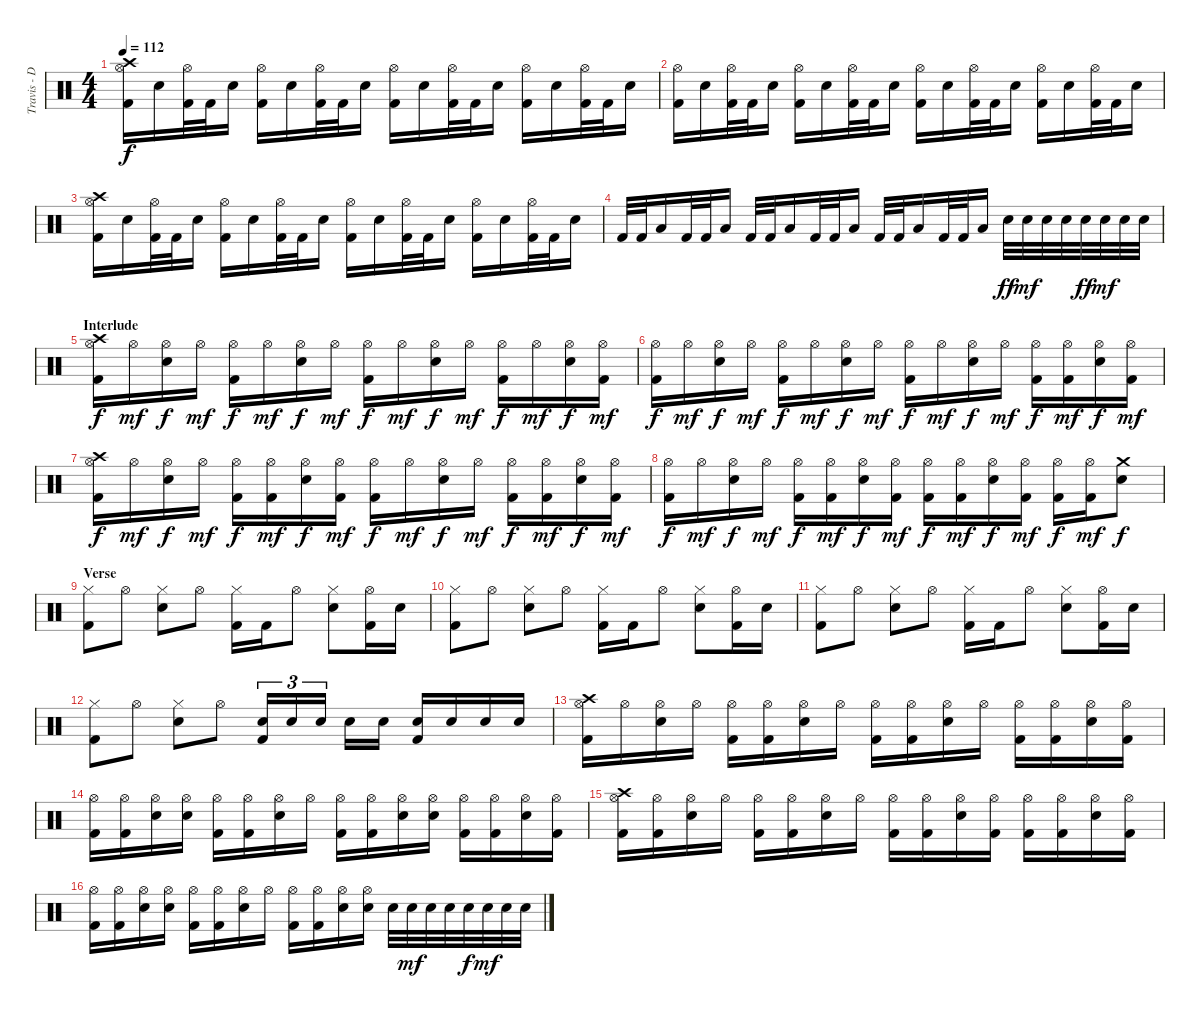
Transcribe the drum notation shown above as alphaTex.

\track ("Travis - Drums" "Travis - D") {instrument percussion}
\staff {score}
\articulation defaults
\ts (4 4)
\tempo 112
\clef neutral
\ks c
("Crash high (hit)" "Hi-Hat (open)" "Kick (hit) 2").16{dy f} "Electric Snare (hit)".16 ("Hi-Hat (open)" "Kick (hit) 2").32 "Kick (hit) 2".32 "Electric Snare (hit)".16 ("Hi-Hat (open)" "Kick (hit) 2").16 "Electric Snare (hit)".16 ("Hi-Hat (open)" "Kick (hit) 2").32 "Kick (hit) 2".32 "Electric Snare (hit)".16 ("Hi-Hat (open)" "Kick (hit) 2").16 "Electric Snare (hit)".16 ("Hi-Hat (open)" "Kick (hit) 2").32 "Kick (hit) 2".32 "Electric Snare (hit)".16 ("Hi-Hat (open)" "Kick (hit) 2").16 "Electric Snare (hit)".16 ("Hi-Hat (open)" "Kick (hit) 2").32 "Kick (hit) 2".32 "Electric Snare (hit)".16 |
("Hi-Hat (open)" "Kick (hit) 2").16 "Electric Snare (hit)".16 ("Hi-Hat (open)" "Kick (hit) 2").32 "Kick (hit) 2".32 "Electric Snare (hit)".16 ("Hi-Hat (open)" "Kick (hit) 2").16 "Electric Snare (hit)".16 ("Hi-Hat (open)" "Kick (hit) 2").32 "Kick (hit) 2".32 "Electric Snare (hit)".16 ("Hi-Hat (open)" "Kick (hit) 2").16 "Electric Snare (hit)".16 ("Hi-Hat (open)" "Kick (hit) 2").32 "Kick (hit) 2".32 "Electric Snare (hit)".16 ("Hi-Hat (open)" "Kick (hit) 2").16 "Electric Snare (hit)".16 ("Hi-Hat (open)" "Kick (hit) 2").32 "Kick (hit) 2".32 "Electric Snare (hit)".16 |
("Crash high (hit)" "Hi-Hat (open)" "Kick (hit) 2").16 "Electric Snare (hit)".16 ("Hi-Hat (open)" "Kick (hit) 2").32 "Kick (hit) 2".32 "Electric Snare (hit)".16 ("Hi-Hat (open)" "Kick (hit) 2").16 "Electric Snare (hit)".16 ("Hi-Hat (open)" "Kick (hit) 2").32 "Kick (hit) 2".32 "Electric Snare (hit)".16 ("Hi-Hat (open)" "Kick (hit) 2").16 "Electric Snare (hit)".16 ("Hi-Hat (open)" "Kick (hit) 2").32 "Kick (hit) 2".32 "Electric Snare (hit)".16 ("Hi-Hat (open)" "Kick (hit) 2").16 "Electric Snare (hit)".16 ("Hi-Hat (open)" "Kick (hit) 2").32 "Kick (hit) 2".32 "Electric Snare (hit)".16 |
"Kick (hit) 2".32 "Kick (hit) 2".32 "Low Tom (hit)".16 "Kick (hit) 2".32 "Kick (hit) 2".32 "Low Tom (hit)".16 "Kick (hit) 2".32 "Kick (hit) 2".32 "Low Tom (hit)".16 "Kick (hit) 2".32 "Kick (hit) 2".32 "Low Tom (hit)".16 "Kick (hit) 2".32 "Kick (hit) 2".32 "Low Tom (hit)".16 "Kick (hit) 2".32 "Kick (hit) 2".32 "Low Tom (hit)".16 "Electric Snare (hit)".32{dy ff} "Electric Snare (hit)".32{dy mf} "Electric Snare (hit)".32 "Electric Snare (hit)".32 "Electric Snare (hit)".32{dy ff} "Electric Snare (hit)".32{dy mf} "Electric Snare (hit)".32 "Electric Snare (hit)".32 |
\section ("" "Interlude")
("Crash high (hit)" "Hi-Hat (open)" "Kick (hit) 2").16{dy f} "Hi-Hat (open)".16{dy mf} ("Hi-Hat (open)" "Electric Snare (hit)").16{dy f} "Hi-Hat (open)".16{dy mf} ("Hi-Hat (open)" "Kick (hit) 2").16{dy f} "Hi-Hat (open)".16{dy mf} ("Hi-Hat (open)" "Electric Snare (hit)").16{dy f} "Hi-Hat (open)".16{dy mf} ("Hi-Hat (open)" "Kick (hit) 2").16{dy f} "Hi-Hat (open)".16{dy mf} ("Hi-Hat (open)" "Electric Snare (hit)").16{dy f} "Hi-Hat (open)".16{dy mf} ("Hi-Hat (open)" "Kick (hit) 2").16{dy f} "Hi-Hat (open)".16{dy mf} ("Hi-Hat (open)" "Electric Snare (hit)").16{dy f} ("Hi-Hat (open)" "Kick (hit) 2").16{dy mf} |
("Hi-Hat (open)" "Kick (hit) 2").16{dy f} "Hi-Hat (open)".16{dy mf} ("Hi-Hat (open)" "Electric Snare (hit)").16{dy f} "Hi-Hat (open)".16{dy mf} ("Hi-Hat (open)" "Kick (hit) 2").16{dy f} "Hi-Hat (open)".16{dy mf} ("Hi-Hat (open)" "Electric Snare (hit)").16{dy f} "Hi-Hat (open)".16{dy mf} ("Hi-Hat (open)" "Kick (hit) 2").16{dy f} "Hi-Hat (open)".16{dy mf} ("Hi-Hat (open)" "Electric Snare (hit)").16{dy f} "Hi-Hat (open)".16{dy mf} ("Hi-Hat (open)" "Kick (hit) 2").16{dy f} ("Hi-Hat (open)" "Kick (hit) 2").16{dy mf} ("Hi-Hat (open)" "Electric Snare (hit)").16{dy f} ("Hi-Hat (open)" "Kick (hit) 2").16{dy mf} |
("Crash high (hit)" "Hi-Hat (open)" "Kick (hit) 2").16{dy f} "Hi-Hat (open)".16{dy mf} ("Hi-Hat (open)" "Electric Snare (hit)").16{dy f} "Hi-Hat (open)".16{dy mf} ("Hi-Hat (open)" "Kick (hit) 2").16{dy f} ("Hi-Hat (open)" "Kick (hit) 2").16{dy mf} ("Hi-Hat (open)" "Electric Snare (hit)").16{dy f} ("Hi-Hat (open)" "Kick (hit) 2").16{dy mf} ("Hi-Hat (open)" "Kick (hit) 2").16{dy f} "Hi-Hat (open)".16{dy mf} ("Hi-Hat (open)" "Electric Snare (hit)").16{dy f} "Hi-Hat (open)".16{dy mf} ("Hi-Hat (open)" "Kick (hit) 2").16{dy f} ("Hi-Hat (open)" "Kick (hit) 2").16{dy mf} ("Hi-Hat (open)" "Electric Snare (hit)").16{dy f} ("Hi-Hat (open)" "Kick (hit) 2").16{dy mf} |
("Hi-Hat (open)" "Kick (hit) 2").16{dy f} "Hi-Hat (open)".16{dy mf} ("Hi-Hat (open)" "Electric Snare (hit)").16{dy f} "Hi-Hat (open)".16{dy mf} ("Hi-Hat (open)" "Kick (hit) 2").16{dy f} ("Hi-Hat (open)" "Kick (hit) 2").16{dy mf} ("Hi-Hat (open)" "Electric Snare (hit)").16{dy f} ("Hi-Hat (open)" "Kick (hit) 2").16{dy mf} ("Hi-Hat (open)" "Kick (hit) 2").16{dy f} ("Hi-Hat (open)" "Kick (hit) 2").16{dy mf} ("Hi-Hat (open)" "Electric Snare (hit)").16{dy f} ("Hi-Hat (open)" "Kick (hit) 2").16{dy mf} ("Hi-Hat (open)" "Kick (hit) 2").16{dy f} ("Hi-Hat (open)" "Kick (hit) 2").16{dy mf} ("Crash medium (hit)" "Electric Snare (hit)").8{dy f} |
\section ("" "Verse")
("Hi-Hat (closed)" "Kick (hit) 2").8 "Hi-Hat (open)".8 ("Hi-Hat (closed)" "Electric Snare (hit)").8 "Hi-Hat (open)".8 ("Hi-Hat (closed)" "Kick (hit) 2").16 "Kick (hit) 2".16 "Hi-Hat (open)".8 ("Hi-Hat (closed)" "Electric Snare (hit)").8 ("Hi-Hat (open)" "Kick (hit) 2").16 "Electric Snare (hit)".16 |
("Hi-Hat (closed)" "Kick (hit) 2").8 "Hi-Hat (open)".8 ("Hi-Hat (closed)" "Electric Snare (hit)").8 "Hi-Hat (open)".8 ("Hi-Hat (closed)" "Kick (hit) 2").16 "Kick (hit) 2".16 "Hi-Hat (open)".8 ("Hi-Hat (closed)" "Electric Snare (hit)").8 ("Hi-Hat (open)" "Kick (hit) 2").16 "Electric Snare (hit)".16 |
("Hi-Hat (closed)" "Kick (hit) 2").8 "Hi-Hat (open)".8 ("Hi-Hat (closed)" "Electric Snare (hit)").8 "Hi-Hat (open)".8 ("Hi-Hat (closed)" "Kick (hit) 2").16 "Kick (hit) 2".16 "Hi-Hat (open)".8 ("Hi-Hat (closed)" "Electric Snare (hit)").8 ("Hi-Hat (open)" "Kick (hit) 2").16 "Electric Snare (hit)".16 |
("Hi-Hat (closed)" "Kick (hit) 2").8 "Hi-Hat (open)".8 ("Hi-Hat (closed)" "Electric Snare (hit)").8 "Hi-Hat (open)".8 ("Electric Snare (hit)" "Kick (hit) 2").16{tu (3 2)} "Electric Snare (hit)".16{tu (3 2)} "Electric Snare (hit)".16{tu (3 2)} "Electric Snare (hit)".16 "Electric Snare (hit)".16 ("Electric Snare (hit)" "Kick (hit) 2").16 "Electric Snare (hit)".16 "Electric Snare (hit)".16 "Electric Snare (hit)".16 |
("Crash high (hit)" "Hi-Hat (open)" "Kick (hit) 2").16 "Hi-Hat (open)".16 ("Hi-Hat (open)" "Electric Snare (hit)").16 "Hi-Hat (open)".16 ("Hi-Hat (open)" "Kick (hit) 2").16 ("Hi-Hat (open)" "Kick (hit) 2").16 ("Hi-Hat (open)" "Electric Snare (hit)").16 "Hi-Hat (open)".16 ("Hi-Hat (open)" "Kick (hit) 2").16 ("Hi-Hat (open)" "Kick (hit) 2").16 ("Hi-Hat (open)" "Electric Snare (hit)").16 "Hi-Hat (open)".16 ("Hi-Hat (open)" "Kick (hit) 2").16 ("Hi-Hat (open)" "Kick (hit) 2").16 ("Hi-Hat (open)" "Electric Snare (hit)").16 ("Hi-Hat (open)" "Kick (hit) 2").16 |
("Hi-Hat (open)" "Kick (hit) 2").16 ("Hi-Hat (open)" "Kick (hit) 2").16 ("Hi-Hat (open)" "Electric Snare (hit)").16 ("Hi-Hat (open)" "Electric Snare (hit)").16 ("Hi-Hat (open)" "Kick (hit) 2").16 ("Hi-Hat (open)" "Kick (hit) 2").16 ("Hi-Hat (open)" "Electric Snare (hit)").16 "Hi-Hat (open)".16 ("Hi-Hat (open)" "Kick (hit) 2").16 ("Hi-Hat (open)" "Kick (hit) 2").16 ("Hi-Hat (open)" "Electric Snare (hit)").16 ("Hi-Hat (open)" "Electric Snare (hit)").16 ("Hi-Hat (open)" "Kick (hit) 2").16 ("Hi-Hat (open)" "Kick (hit) 2").16 ("Hi-Hat (open)" "Electric Snare (hit)").16 ("Hi-Hat (open)" "Kick (hit) 2").16 |
("Crash high (hit)" "Hi-Hat (open)" "Kick (hit) 2").16 ("Hi-Hat (open)" "Kick (hit) 2").16 ("Hi-Hat (open)" "Electric Snare (hit)").16 "Hi-Hat (open)".16 ("Hi-Hat (open)" "Kick (hit) 2").16 ("Hi-Hat (open)" "Kick (hit) 2").16 ("Hi-Hat (open)" "Electric Snare (hit)").16 "Hi-Hat (open)".16 ("Hi-Hat (open)" "Kick (hit) 2").16 ("Hi-Hat (open)" "Kick (hit) 2").16 ("Hi-Hat (open)" "Electric Snare (hit)").16 ("Hi-Hat (open)" "Kick (hit) 2").16 ("Hi-Hat (open)" "Kick (hit) 2").16 ("Hi-Hat (open)" "Kick (hit) 2").16 ("Hi-Hat (open)" "Electric Snare (hit)").16 ("Hi-Hat (open)" "Kick (hit) 2").16 |
("Hi-Hat (open)" "Kick (hit) 2").16 ("Hi-Hat (open)" "Kick (hit) 2").16 ("Hi-Hat (open)" "Electric Snare (hit)").16 ("Hi-Hat (open)" "Electric Snare (hit)").16 ("Hi-Hat (open)" "Kick (hit) 2").16 ("Hi-Hat (open)" "Kick (hit) 2").16 ("Hi-Hat (open)" "Electric Snare (hit)").16 "Hi-Hat (open)".16 ("Hi-Hat (open)" "Kick (hit) 2").16 ("Hi-Hat (open)" "Kick (hit) 2").16 ("Hi-Hat (open)" "Electric Snare (hit)").16 ("Hi-Hat (open)" "Electric Snare (hit)").16 "Electric Snare (hit)".32 "Electric Snare (hit)".32{dy mf} "Electric Snare (hit)".32 "Electric Snare (hit)".32 "Electric Snare (hit)".32{dy f} "Electric Snare (hit)".32{dy mf} "Electric Snare (hit)".32 "Electric Snare (hit)".32
